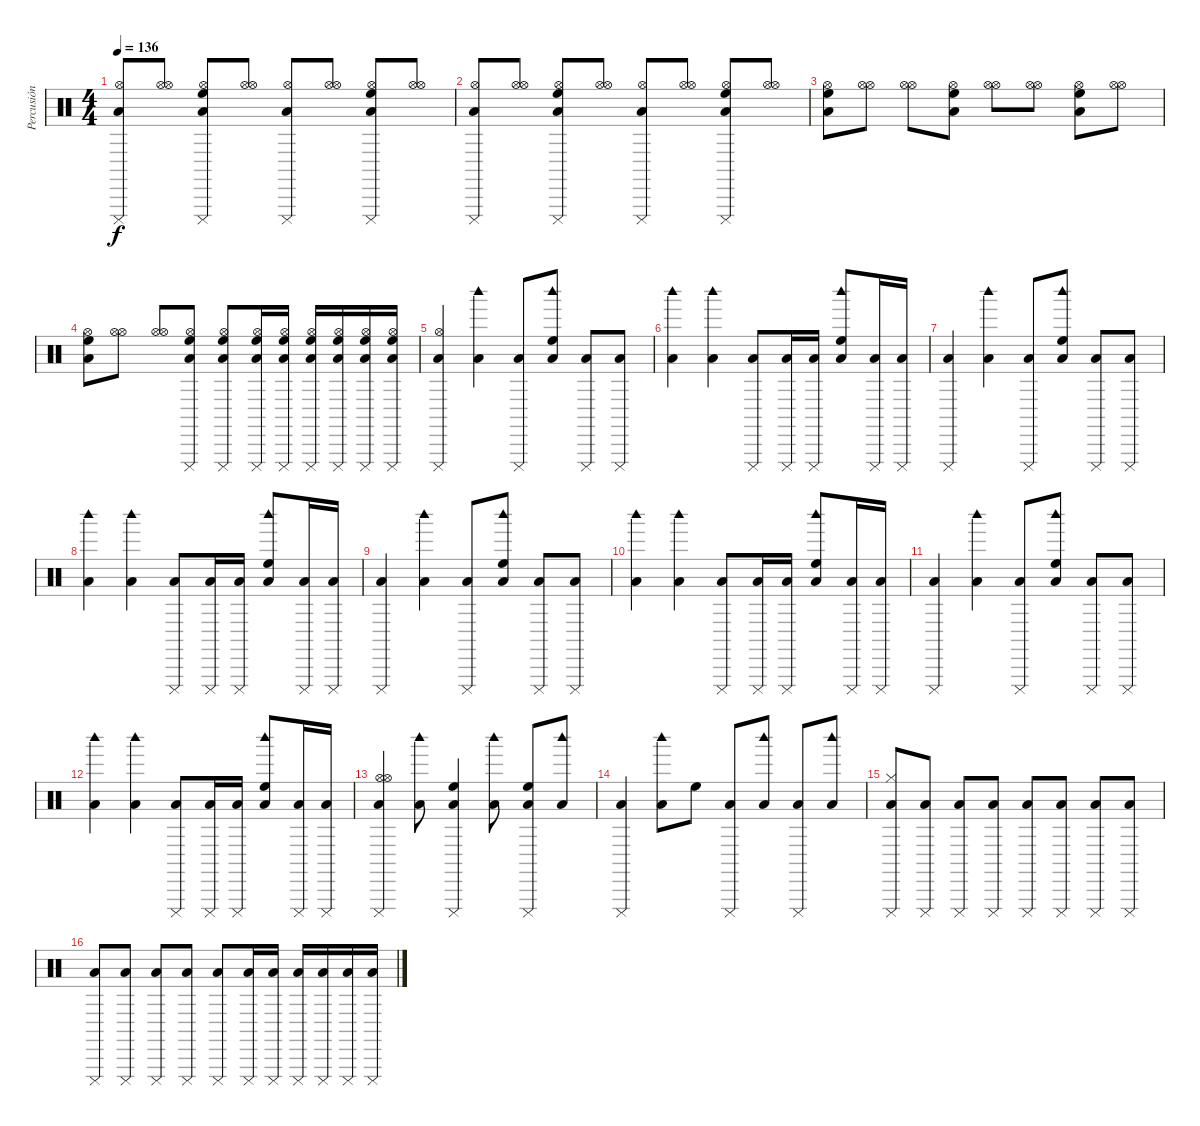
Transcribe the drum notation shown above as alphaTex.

\track ("Percusión" "Percusión") {instrument percussion}
\staff {score}
\articulation defaults
\ts (4 4)
\tempo 136
\clef neutral
\ks c
("Cuica (mute)" "Hi-Hat (open)" "Low Tom (hit)").8{dy f} ("Hi-Hat (open)" "Hi-Hat (open)").8 ("Cuica (mute)" "Hi-Hat (open)" "Low Tom (hit)" "High Floor Tom (hit)").8 ("Hi-Hat (open)" "Hi-Hat (open)").8 ("Cuica (mute)" "Hi-Hat (open)" "Low Tom (hit)").8 ("Hi-Hat (open)" "Hi-Hat (open)").8 ("Cuica (mute)" "Hi-Hat (open)" "Low Tom (hit)" "High Floor Tom (hit)").8 ("Hi-Hat (open)" "Hi-Hat (open)").8 |
("Cuica (mute)" "Hi-Hat (open)" "Low Tom (hit)").8 ("Hi-Hat (open)" "Hi-Hat (open)").8 ("Cuica (mute)" "Hi-Hat (open)" "Low Tom (hit)" "High Floor Tom (hit)").8 ("Hi-Hat (open)" "Hi-Hat (open)").8 ("Cuica (mute)" "Hi-Hat (open)" "Low Tom (hit)").8 ("Hi-Hat (open)" "Hi-Hat (open)").8 ("Cuica (mute)" "Hi-Hat (open)" "Low Tom (hit)" "High Floor Tom (hit)").8 ("Hi-Hat (open)" "Hi-Hat (open)").8 |
("Hi-Hat (open)" "Low Tom (hit)" "High Floor Tom (hit)").8 ("Hi-Hat (open)" "Hi-Hat (open)").8 ("Hi-Hat (open)" "Hi-Hat (open)").8 ("Hi-Hat (open)" "Low Tom (hit)" "High Floor Tom (hit)").8 ("Hi-Hat (open)" "Hi-Hat (open)").8 ("Hi-Hat (open)" "Hi-Hat (open)").8 ("Hi-Hat (open)" "Low Tom (hit)" "High Floor Tom (hit)").8 ("Hi-Hat (open)" "Hi-Hat (open)").8 |
("Hi-Hat (open)" "Low Tom (hit)" "High Floor Tom (hit)").8 ("Hi-Hat (open)" "Hi-Hat (open)").8 ("Hi-Hat (open)" "Hi-Hat (open)").8 ("Cuica (mute)" "Hi-Hat (open)" "Low Tom (hit)" "High Floor Tom (hit)").8 ("Cuica (mute)" "Hi-Hat (open)" "Low Tom (hit)" "High Floor Tom (hit)").8 ("Cuica (mute)" "Hi-Hat (open)" "Low Tom (hit)" "High Floor Tom (hit)").16 ("Cuica (mute)" "Hi-Hat (open)" "Low Tom (hit)" "High Floor Tom (hit)").16 ("Cuica (mute)" "Hi-Hat (open)" "Low Tom (hit)" "High Floor Tom (hit)").16 ("Cuica (mute)" "Hi-Hat (open)" "Low Tom (hit)" "High Floor Tom (hit)").16 ("Cuica (mute)" "Hi-Hat (open)" "Low Tom (hit)" "High Floor Tom (hit)").16 ("Cuica (mute)" "Hi-Hat (open)" "Low Tom (hit)" "High Floor Tom (hit)").16 |
("Cuica (mute)" "Hi-Hat (open)" "Low Tom (hit)").4{volume 13} ("Woodblock high (hit)" "Low Tom (hit)").4 ("Cuica (mute)" "Low Tom (hit)").8 ("Woodblock high (hit)" "Low Tom (hit)" "High Floor Tom (hit)").8 ("Cuica (mute)" "Low Tom (hit)").8 ("Cuica (mute)" "Low Tom (hit)").8 |
("Woodblock high (hit)" "Low Tom (hit)").4 ("Woodblock high (hit)" "Low Tom (hit)").4 ("Cuica (mute)" "Low Tom (hit)").8 ("Cuica (mute)" "Low Tom (hit)").16 ("Cuica (mute)" "Low Tom (hit)").16 ("Woodblock high (hit)" "Low Tom (hit)" "High Floor Tom (hit)").8 ("Cuica (mute)" "Low Tom (hit)").16 ("Cuica (mute)" "Low Tom (hit)").16 |
("Cuica (mute)" "Low Tom (hit)").4{volume 13} ("Woodblock high (hit)" "Low Tom (hit)").4 ("Cuica (mute)" "Low Tom (hit)").8 ("Woodblock high (hit)" "Low Tom (hit)" "High Floor Tom (hit)").8 ("Cuica (mute)" "Low Tom (hit)").8 ("Cuica (mute)" "Low Tom (hit)").8 |
("Woodblock high (hit)" "Low Tom (hit)").4 ("Woodblock high (hit)" "Low Tom (hit)").4 ("Cuica (mute)" "Low Tom (hit)").8 ("Cuica (mute)" "Low Tom (hit)").16 ("Cuica (mute)" "Low Tom (hit)").16 ("Woodblock high (hit)" "Low Tom (hit)" "High Floor Tom (hit)").8 ("Cuica (mute)" "Low Tom (hit)").16 ("Cuica (mute)" "Low Tom (hit)").16 |
("Cuica (mute)" "Low Tom (hit)").4{volume 13} ("Woodblock high (hit)" "Low Tom (hit)").4 ("Cuica (mute)" "Low Tom (hit)").8 ("Woodblock high (hit)" "Low Tom (hit)" "High Floor Tom (hit)").8 ("Cuica (mute)" "Low Tom (hit)").8 ("Cuica (mute)" "Low Tom (hit)").8 |
("Woodblock high (hit)" "Low Tom (hit)").4 ("Woodblock high (hit)" "Low Tom (hit)").4 ("Cuica (mute)" "Low Tom (hit)").8 ("Cuica (mute)" "Low Tom (hit)").16 ("Cuica (mute)" "Low Tom (hit)").16 ("Woodblock high (hit)" "Low Tom (hit)" "High Floor Tom (hit)").8 ("Cuica (mute)" "Low Tom (hit)").16 ("Cuica (mute)" "Low Tom (hit)").16 |
("Cuica (mute)" "Low Tom (hit)").4{volume 13} ("Woodblock high (hit)" "Low Tom (hit)").4 ("Cuica (mute)" "Low Tom (hit)").8 ("Woodblock high (hit)" "Low Tom (hit)" "High Floor Tom (hit)").8 ("Cuica (mute)" "Low Tom (hit)").8 ("Cuica (mute)" "Low Tom (hit)").8 |
("Woodblock high (hit)" "Low Tom (hit)").4 ("Woodblock high (hit)" "Low Tom (hit)").4 ("Cuica (mute)" "Low Tom (hit)").8 ("Cuica (mute)" "Low Tom (hit)").16 ("Cuica (mute)" "Low Tom (hit)").16 ("Woodblock high (hit)" "Low Tom (hit)" "High Floor Tom (hit)").8 ("Cuica (mute)" "Low Tom (hit)").16 ("Cuica (mute)" "Low Tom (hit)").16 |
("Cuica (mute)" "Hi-Hat (open)" "Low Tom (hit)" "Hi-Hat (open)").4 ("Woodblock high (hit)" "Low Tom (hit)").8 ("Cuica (mute)" "Low Tom (hit)" "High Floor Tom (hit)").4 ("Woodblock high (hit)" "Low Tom (hit)").8 ("Cuica (mute)" "Low Tom (hit)" "High Floor Tom (hit)").8 ("Woodblock high (hit)" "Low Tom (hit)").8 |
("Cuica (mute)" "Low Tom (hit)").4 ("Woodblock high (hit)" "Low Tom (hit)").8 "High Floor Tom (hit)".8 ("Cuica (mute)" "Low Tom (hit)").8 ("Woodblock high (hit)" "Low Tom (hit)").8 ("Cuica (mute)" "Low Tom (hit)").8 ("Woodblock high (hit)" "Low Tom (hit)").8 |
("Cuica (mute)" "Hi-Hat (closed)" "Low Tom (hit)").8 ("Cuica (mute)" "Low Tom (hit)").8 ("Cuica (mute)" "Low Tom (hit)").8 ("Cuica (mute)" "Low Tom (hit)").8 ("Cuica (mute)" "Low Tom (hit)").8 ("Cuica (mute)" "Low Tom (hit)").8 ("Cuica (mute)" "Low Tom (hit)").8 ("Cuica (mute)" "Low Tom (hit)").8 |
("Cuica (mute)" "Low Tom (hit)").8 ("Cuica (mute)" "Low Tom (hit)").8 ("Cuica (mute)" "Low Tom (hit)").8 ("Cuica (mute)" "Low Tom (hit)").8 ("Cuica (mute)" "Low Tom (hit)").8 ("Cuica (mute)" "Low Tom (hit)").16 ("Cuica (mute)" "Low Tom (hit)").16 ("Cuica (mute)" "Low Tom (hit)").16 ("Cuica (mute)" "Low Tom (hit)").16 ("Cuica (mute)" "Low Tom (hit)").16 ("Cuica (mute)" "Low Tom (hit)").16
